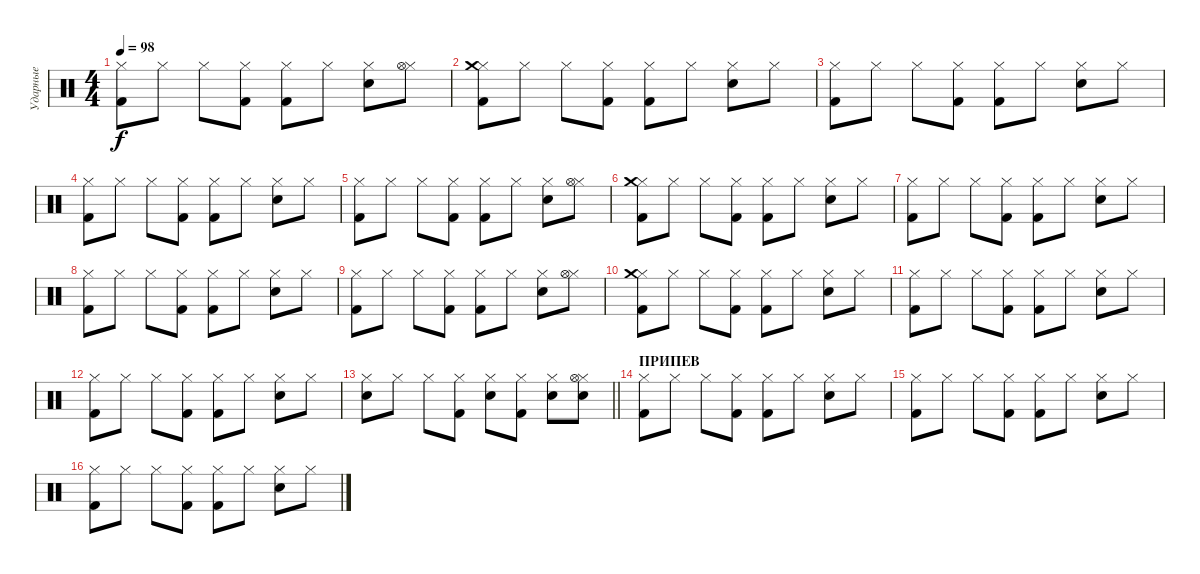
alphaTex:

\track ("Ударные" "Ударные") {instrument percussion}
\staff {score}
\articulation defaults
\ts (4 4)
\tempo 98
\clef neutral
\ks c
("Hi-Hat (closed)" "Kick (hit) 2").8{dy f} "Hi-Hat (closed)".8 "Hi-Hat (closed)".8 ("Hi-Hat (closed)" "Kick (hit) 2").8 ("Hi-Hat (closed)" "Kick (hit) 2").8 "Hi-Hat (closed)".8 ("Hi-Hat (closed)" "Snare (hit) 2").8 ("Hi-Hat (closed)" "Hi-Hat (open)").8 |
("Hi-Hat (closed)" "Kick (hit) 2" "Crash medium (hit)").8 "Hi-Hat (closed)".8 "Hi-Hat (closed)".8 ("Hi-Hat (closed)" "Kick (hit) 2").8 ("Hi-Hat (closed)" "Kick (hit) 2").8 "Hi-Hat (closed)".8 ("Hi-Hat (closed)" "Snare (hit) 2").8 "Hi-Hat (closed)".8 |
("Hi-Hat (closed)" "Kick (hit) 2").8 "Hi-Hat (closed)".8 "Hi-Hat (closed)".8 ("Hi-Hat (closed)" "Kick (hit) 2").8 ("Hi-Hat (closed)" "Kick (hit) 2").8 "Hi-Hat (closed)".8 ("Hi-Hat (closed)" "Snare (hit) 2").8 "Hi-Hat (closed)".8 |
("Hi-Hat (closed)" "Kick (hit) 2").8 "Hi-Hat (closed)".8 "Hi-Hat (closed)".8 ("Hi-Hat (closed)" "Kick (hit) 2").8 ("Hi-Hat (closed)" "Kick (hit) 2").8 "Hi-Hat (closed)".8 ("Hi-Hat (closed)" "Snare (hit) 2").8 "Hi-Hat (closed)".8 |
("Hi-Hat (closed)" "Kick (hit) 2").8 "Hi-Hat (closed)".8 "Hi-Hat (closed)".8 ("Hi-Hat (closed)" "Kick (hit) 2").8 ("Hi-Hat (closed)" "Kick (hit) 2").8 "Hi-Hat (closed)".8 ("Hi-Hat (closed)" "Snare (hit) 2").8 ("Hi-Hat (closed)" "Hi-Hat (open)").8 |
("Hi-Hat (closed)" "Kick (hit) 2" "Crash medium (hit)").8 "Hi-Hat (closed)".8 "Hi-Hat (closed)".8 ("Hi-Hat (closed)" "Kick (hit) 2").8 ("Hi-Hat (closed)" "Kick (hit) 2").8 "Hi-Hat (closed)".8 ("Hi-Hat (closed)" "Snare (hit) 2").8 "Hi-Hat (closed)".8 |
("Hi-Hat (closed)" "Kick (hit) 2").8 "Hi-Hat (closed)".8 "Hi-Hat (closed)".8 ("Hi-Hat (closed)" "Kick (hit) 2").8 ("Hi-Hat (closed)" "Kick (hit) 2").8 "Hi-Hat (closed)".8 ("Hi-Hat (closed)" "Snare (hit) 2").8 "Hi-Hat (closed)".8 |
("Hi-Hat (closed)" "Kick (hit) 2").8 "Hi-Hat (closed)".8 "Hi-Hat (closed)".8 ("Hi-Hat (closed)" "Kick (hit) 2").8 ("Hi-Hat (closed)" "Kick (hit) 2").8 "Hi-Hat (closed)".8 ("Hi-Hat (closed)" "Snare (hit) 2").8 "Hi-Hat (closed)".8 |
("Hi-Hat (closed)" "Kick (hit) 2").8 "Hi-Hat (closed)".8 "Hi-Hat (closed)".8 ("Hi-Hat (closed)" "Kick (hit) 2").8 ("Hi-Hat (closed)" "Kick (hit) 2").8 "Hi-Hat (closed)".8 ("Hi-Hat (closed)" "Snare (hit) 2").8 ("Hi-Hat (closed)" "Hi-Hat (open)").8 |
("Hi-Hat (closed)" "Kick (hit) 2" "Crash medium (hit)").8 "Hi-Hat (closed)".8 "Hi-Hat (closed)".8 ("Hi-Hat (closed)" "Kick (hit) 2").8 ("Hi-Hat (closed)" "Kick (hit) 2").8 "Hi-Hat (closed)".8 ("Hi-Hat (closed)" "Snare (hit) 2").8 "Hi-Hat (closed)".8 |
("Hi-Hat (closed)" "Kick (hit) 2").8 "Hi-Hat (closed)".8 "Hi-Hat (closed)".8 ("Hi-Hat (closed)" "Kick (hit) 2").8 ("Hi-Hat (closed)" "Kick (hit) 2").8 "Hi-Hat (closed)".8 ("Hi-Hat (closed)" "Snare (hit) 2").8 "Hi-Hat (closed)".8 |
("Hi-Hat (closed)" "Kick (hit) 2").8 "Hi-Hat (closed)".8 "Hi-Hat (closed)".8 ("Hi-Hat (closed)" "Kick (hit) 2").8 ("Hi-Hat (closed)" "Kick (hit) 2").8 "Hi-Hat (closed)".8 ("Hi-Hat (closed)" "Snare (hit) 2").8 "Hi-Hat (closed)".8 |
\barLineRight lightlight
("Hi-Hat (closed)" "Snare (hit) 2").8 "Hi-Hat (closed)".8 "Hi-Hat (closed)".8 ("Hi-Hat (closed)" "Kick (hit) 2").8 ("Hi-Hat (closed)" "Snare (hit) 2").8 ("Hi-Hat (closed)" "Kick (hit) 2").8 ("Hi-Hat (closed)" "Snare (hit) 2").8 ("Hi-Hat (closed)" "Snare (hit) 2" "Hi-Hat (open)").8 |
\section ("" "ПРИПЕВ")
("Hi-Hat (closed)" "Kick (hit) 2").8 "Hi-Hat (closed)".8 "Hi-Hat (closed)".8 ("Hi-Hat (closed)" "Kick (hit) 2").8 ("Hi-Hat (closed)" "Kick (hit) 2").8 "Hi-Hat (closed)".8 ("Hi-Hat (closed)" "Snare (hit) 2").8 "Hi-Hat (closed)".8 |
("Hi-Hat (closed)" "Kick (hit) 2").8 "Hi-Hat (closed)".8 "Hi-Hat (closed)".8 ("Hi-Hat (closed)" "Kick (hit) 2").8 ("Hi-Hat (closed)" "Kick (hit) 2").8 "Hi-Hat (closed)".8 ("Hi-Hat (closed)" "Snare (hit) 2").8 "Hi-Hat (closed)".8 |
("Hi-Hat (closed)" "Kick (hit) 2").8 "Hi-Hat (closed)".8 "Hi-Hat (closed)".8 ("Hi-Hat (closed)" "Kick (hit) 2").8 ("Hi-Hat (closed)" "Kick (hit) 2").8 "Hi-Hat (closed)".8 ("Hi-Hat (closed)" "Snare (hit) 2").8 "Hi-Hat (closed)".8
